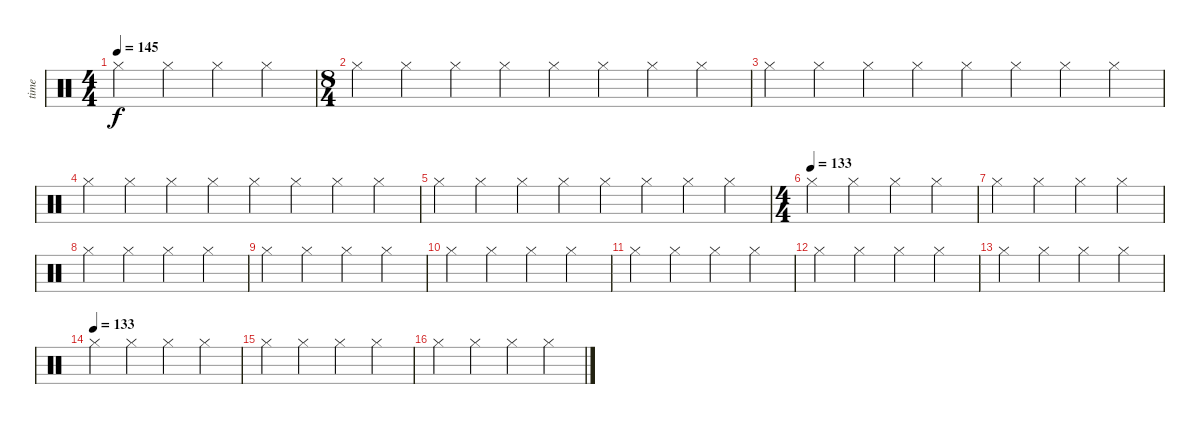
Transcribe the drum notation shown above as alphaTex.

\track ("time" "time") {instrument percussion}
\staff {score}
\articulation defaults
\ts (4 4)
\tempo 145
\clef neutral
\ks c "Hi-Hat (closed)".4{dy f} "Hi-Hat (closed)".4 "Hi-Hat (closed)".4 "Hi-Hat (closed)".4
|
\ts (8 4)
"Hi-Hat (closed)".4 "Hi-Hat (closed)".4 "Hi-Hat (closed)".4 "Hi-Hat (closed)".4 "Hi-Hat (closed)".4 "Hi-Hat (closed)".4 "Hi-Hat (closed)".4 "Hi-Hat (closed)".4 |
"Hi-Hat (closed)".4 "Hi-Hat (closed)".4 "Hi-Hat (closed)".4 "Hi-Hat (closed)".4 "Hi-Hat (closed)".4 "Hi-Hat (closed)".4 "Hi-Hat (closed)".4 "Hi-Hat (closed)".4 |
"Hi-Hat (closed)".4 "Hi-Hat (closed)".4 "Hi-Hat (closed)".4 "Hi-Hat (closed)".4 "Hi-Hat (closed)".4 "Hi-Hat (closed)".4 "Hi-Hat (closed)".4 "Hi-Hat (closed)".4 |
"Hi-Hat (closed)".4 "Hi-Hat (closed)".4 "Hi-Hat (closed)".4 "Hi-Hat (closed)".4 "Hi-Hat (closed)".4 "Hi-Hat (closed)".4 "Hi-Hat (closed)".4 "Hi-Hat (closed)".4 |
\ts (4 4)
\tempo (133)
"Hi-Hat (closed)".4 "Hi-Hat (closed)".4 "Hi-Hat (closed)".4 "Hi-Hat (closed)".4 |
"Hi-Hat (closed)".4 "Hi-Hat (closed)".4 "Hi-Hat (closed)".4 "Hi-Hat (closed)".4 |
"Hi-Hat (closed)".4 "Hi-Hat (closed)".4 "Hi-Hat (closed)".4 "Hi-Hat (closed)".4 |
"Hi-Hat (closed)".4 "Hi-Hat (closed)".4 "Hi-Hat (closed)".4 "Hi-Hat (closed)".4 |
"Hi-Hat (closed)".4 "Hi-Hat (closed)".4 "Hi-Hat (closed)".4 "Hi-Hat (closed)".4 |
"Hi-Hat (closed)".4 "Hi-Hat (closed)".4 "Hi-Hat (closed)".4 "Hi-Hat (closed)".4 |
"Hi-Hat (closed)".4 "Hi-Hat (closed)".4 "Hi-Hat (closed)".4 "Hi-Hat (closed)".4 |
"Hi-Hat (closed)".4 "Hi-Hat (closed)".4 "Hi-Hat (closed)".4 "Hi-Hat (closed)".4 |
\tempo (133)
"Hi-Hat (closed)".4 "Hi-Hat (closed)".4 "Hi-Hat (closed)".4 "Hi-Hat (closed)".4 |
"Hi-Hat (closed)".4 "Hi-Hat (closed)".4 "Hi-Hat (closed)".4 "Hi-Hat (closed)".4 |
"Hi-Hat (closed)".4 "Hi-Hat (closed)".4 "Hi-Hat (closed)".4 "Hi-Hat (closed)".4
